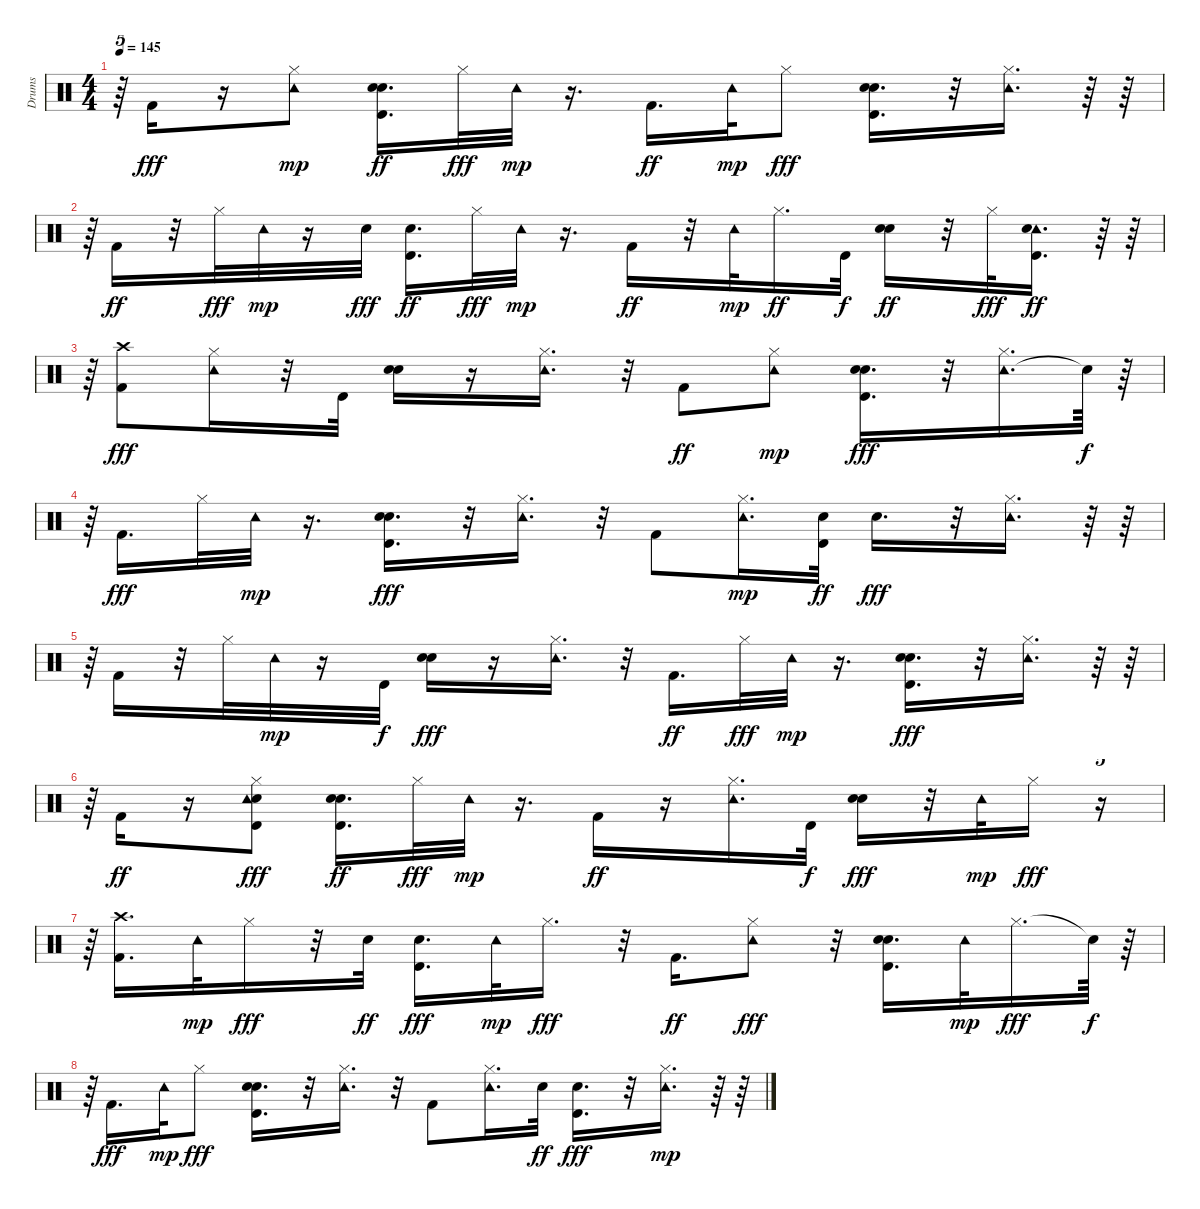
\track ("Drums" "Drums") {instrument percussion}
\staff {score}
\articulation defaults
\ts (4 4)
\tempo 145
\clef neutral
\ks c
r.64{tu (5 4) dy fff} "Kick (hit) 2".16 r.16 ("Hi-Hat (closed)" "Tambourine (hit)").8{dy mp} ("Timbale high (hit)" "Hand Clap (hit)" "Snare (hit) 2").16{d dy ff} "Hi-Hat (closed)".32{dy fff} "Tambourine (hit)".32{dy mp} r.16{d} "Kick (hit) 2".16{d dy ff} "Tambourine (hit)".32{dy mp} "Hi-Hat (closed)".8{dy fff} ("Snare (hit) 2" "Timbale high (hit)" "Hand Clap (hit)").16{d} r.32 ("Tambourine (hit)" "Hi-Hat (closed)").16{d} r.64 r.64 |
r.64{tu (5 4)} "Kick (hit) 2".16{dy ff} r.32 "Hi-Hat (closed)".32{dy fff} "Tambourine (hit)".32{dy mp} r.16 "Hand Clap (hit)".32{dy fff} ("Timbale high (hit)" "Snare (hit) 2").16{d dy ff} "Hi-Hat (closed)".32{dy fff} "Tambourine (hit)".32{dy mp} r.16{d} "Kick (hit) 2".16{dy ff} r.32 "Tambourine (hit)".32{dy mp} "Hi-Hat (closed)".16{d dy ff} "Timbale high (hit)".32{dy f} ("Hand Clap (hit)" "Snare (hit) 2").16{dy ff} r.32 "Hi-Hat (closed)".32{dy fff} ("Timbale high (hit)" "Tambourine (hit)" "Snare (hit) 2").16{d dy ff} r.64 r.64 |
r.64{tu (5 4)} ("Kick (hit) 2" "Crash high (hit)").8{dy fff} ("Tambourine (hit)" "Hi-Hat (closed)").16 r.32 "Timbale high (hit)".32 ("Snare (hit) 2" "Hand Clap (hit)").16 r.16 ("Tambourine (hit)" "Hi-Hat (closed)").16{d} r.32 "Kick (hit) 2".8{dy ff} ("Hi-Hat (closed)" "Tambourine (hit)").8{dy mp} ("Snare (hit) 2" "Timbale high (hit)" "Hand Clap (hit)").16{d dy fff} r.32 ("Tambourine (hit)" "Hi-Hat (closed)").16{d} "Snare (hit)"{t}.64{dy f} r.64 |
r.64{tu (5 4)} "Kick (hit) 2".16{d dy fff} "Hi-Hat (closed)".32 "Tambourine (hit)".32{dy mp} r.16{d} ("Timbale high (hit)" "Snare (hit) 2" "Hand Clap (hit)").16{d dy fff} r.32 ("Tambourine (hit)" "Hi-Hat (closed)").16{d} r.32 "Kick (hit) 2".8 ("Hi-Hat (closed)" "Tambourine (hit)").16{d dy mp} ("Snare (hit) 2" "Timbale high (hit)").32{dy ff} "Hand Clap (hit)".16{d dy fff} r.32 ("Tambourine (hit)" "Hi-Hat (closed)").16{d} r.64 r.64 |
r.64{tu (5 4)} "Kick (hit) 2".16 r.32 "Hi-Hat (closed)".32 "Tambourine (hit)".32{dy mp} r.16 "Timbale high (hit)".32{dy f} ("Snare (hit) 2" "Hand Clap (hit)").16{dy fff} r.16 ("Tambourine (hit)" "Hi-Hat (closed)").16{d} r.32 "Kick (hit) 2".16{d dy ff} "Hi-Hat (closed)".32{dy fff} "Tambourine (hit)".32{dy mp} r.16{d} ("Timbale high (hit)" "Snare (hit) 2" "Hand Clap (hit)").16{d dy fff} r.32 ("Tambourine (hit)" "Hi-Hat (closed)").16{d} r.64 r.64 |
r.64{tu (5 4)} "Kick (hit) 2".16{dy ff} r.16 ("Snare (hit) 2" "Tambourine (hit)" "Timbale high (hit)" "Hi-Hat (closed)").8{dy fff} ("Hand Clap (hit)" "Timbale high (hit)" "Snare (hit) 2").16{d dy ff} "Hi-Hat (closed)".32{dy fff} "Tambourine (hit)".32{dy mp} r.16{d} "Kick (hit) 2".16{dy ff} r.16 ("Tambourine (hit)" "Hi-Hat (closed)").16{d} "Timbale high (hit)".32{dy f} ("Snare (hit) 2" "Hand Clap (hit)").16{dy fff} r.32 "Tambourine (hit)".32{dy mp} "Hi-Hat (closed)".16{dy fff} r.16{tu (5 4)} |
r.64{tu (5 4)} ("Crash high (hit)" "Kick (hit) 2").16{d} "Tambourine (hit)".32{dy mp} "Hi-Hat (closed)".16{dy fff} r.32 "Snare (hit) 2".32{dy ff} ("Timbale high (hit)" "Hand Clap (hit)").16{d dy fff} "Tambourine (hit)".32{dy mp} "Hi-Hat (closed)".16{d dy fff} r.32 "Kick (hit) 2".16{d dy ff} ("Tambourine (hit)" "Hi-Hat (closed)").8{dy fff} r.32 ("Snare (hit) 2" "Timbale high (hit)" "Hand Clap (hit)").16{d} "Tambourine (hit)".32{dy mp} "Hi-Hat (closed)".16{d dy fff} "Snare (hit)"{t}.64{dy f} r.64 |
r.64{tu (5 4)} "Kick (hit) 2".16{d dy fff} "Tambourine (hit)".32{dy mp} "Hi-Hat (closed)".8{dy fff} ("Timbale high (hit)" "Snare (hit) 2" "Hand Clap (hit)").16{d} r.32 ("Tambourine (hit)" "Hi-Hat (closed)").16{d} r.32 "Kick (hit) 2".8 ("Tambourine (hit)" "Hi-Hat (closed)").16{d} "Snare (hit) 2".32{dy ff} ("Hand Clap (hit)" "Timbale high (hit)").16{d dy fff} r.32 ("Hi-Hat (closed)" "Tambourine (hit)").16{d dy mp} r.64 r.64
